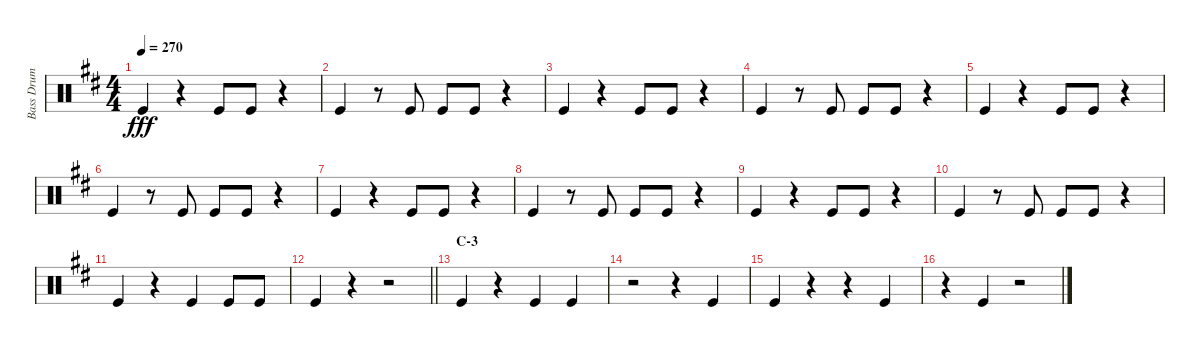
\track ("Bass Drum" "Bass Drum") {instrument percussion}
\staff {score}
\articulation defaults
\ts (4 4)
\tempo 270
\clef neutral
\ks d "Kick (hit)".4{dy fff}
r.4 "Kick (hit)".8 "Kick (hit)".8 r.4 |
"Kick (hit)".4 r.8 "Kick (hit)".8 "Kick (hit)".8 "Kick (hit)".8 r.4 |
"Kick (hit)".4 r.4 "Kick (hit)".8 "Kick (hit)".8 r.4 |
"Kick (hit)".4 r.8 "Kick (hit)".8 "Kick (hit)".8 "Kick (hit)".8 r.4 |
"Kick (hit)".4 r.4 "Kick (hit)".8 "Kick (hit)".8 r.4 |
"Kick (hit)".4 r.8 "Kick (hit)".8 "Kick (hit)".8 "Kick (hit)".8 r.4 |
"Kick (hit)".4 r.4 "Kick (hit)".8 "Kick (hit)".8 r.4 |
"Kick (hit)".4 r.8 "Kick (hit)".8 "Kick (hit)".8 "Kick (hit)".8 r.4 |
"Kick (hit)".4 r.4 "Kick (hit)".8 "Kick (hit)".8 r.4 |
"Kick (hit)".4 r.8 "Kick (hit)".8 "Kick (hit)".8 "Kick (hit)".8 r.4 |
"Kick (hit)".4 r.4 "Kick (hit)".4 "Kick (hit)".8 "Kick (hit)".8 |
\barLineRight lightlight "Kick (hit)".4
r.4 r.2 |
\section ("" "C-3")
"Kick (hit)".4 r.4 "Kick (hit)".4 "Kick (hit)".4 |
r.2 r.4 "Kick (hit)".4 |
"Kick (hit)".4 r.4 r.4 "Kick (hit)".4 |
r.4 "Kick (hit)".4 r.2
